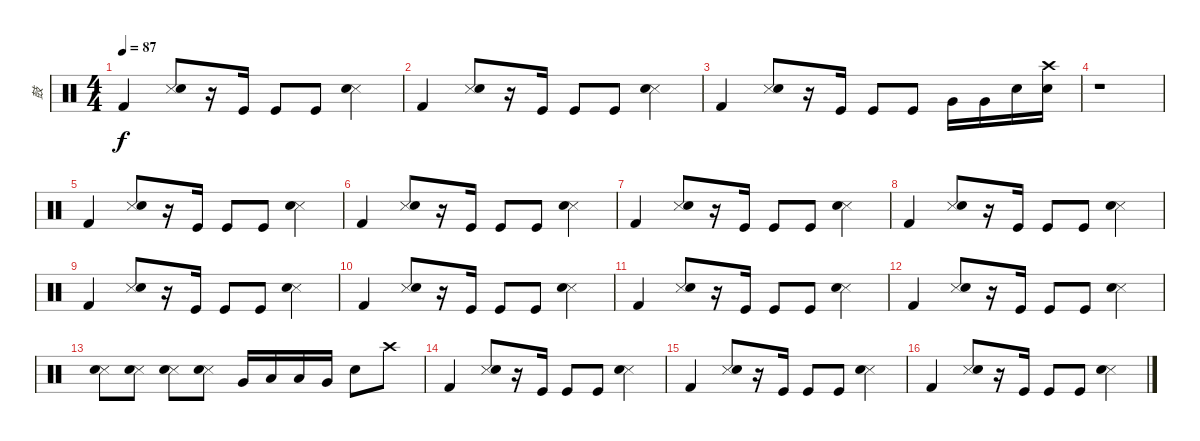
\track ("鼓" "鼓") {instrument percussion}
\staff {score}
\articulation defaults
\ts (4 4)
\tempo 87
\clef neutral
\ks c "Kick (hit) 2".4{dy f}
("Snare (side stick) 3" "Electric Snare (hit)").8 r.16 "Kick (hit)".16 "Kick (hit)".8 "Kick (hit)".8 ("Snare (side stick) 3" "Electric Snare (hit)").4 |
"Kick (hit) 2".4 ("Snare (side stick) 3" "Electric Snare (hit)").8 r.16 "Kick (hit)".16 "Kick (hit)".8 "Kick (hit)".8 ("Snare (side stick) 3" "Electric Snare (hit)").4 |
"Kick (hit) 2".4 ("Snare (side stick) 3" "Electric Snare (hit)").8 r.16 "Kick (hit)".16 "Kick (hit)".8 "Kick (hit)".8 "Very Low Tom (hit)".16 "Very Low Tom (hit)".16 "Electric Snare (hit)".16 ("Crash high (hit)" "Electric Snare (hit)").16 |
r.1 |
"Kick (hit) 2".4 ("Snare (side stick) 3" "Electric Snare (hit)").8 r.16 "Kick (hit)".16 "Kick (hit)".8 "Kick (hit)".8 ("Snare (side stick) 3" "Electric Snare (hit)").4 |
"Kick (hit) 2".4 ("Snare (side stick) 3" "Electric Snare (hit)").8 r.16 "Kick (hit)".16 "Kick (hit)".8 "Kick (hit)".8 ("Snare (side stick) 3" "Electric Snare (hit)").4 |
"Kick (hit) 2".4 ("Snare (side stick) 3" "Electric Snare (hit)").8 r.16 "Kick (hit)".16 "Kick (hit)".8 "Kick (hit)".8 ("Snare (side stick) 3" "Electric Snare (hit)").4 |
"Kick (hit) 2".4 ("Snare (side stick) 3" "Electric Snare (hit)").8 r.16 "Kick (hit)".16 "Kick (hit)".8 "Kick (hit)".8 ("Snare (side stick) 3" "Electric Snare (hit)").4 |
"Kick (hit) 2".4 ("Snare (side stick) 3" "Electric Snare (hit)").8 r.16 "Kick (hit)".16 "Kick (hit)".8 "Kick (hit)".8 ("Snare (side stick) 3" "Electric Snare (hit)").4 |
"Kick (hit) 2".4 ("Snare (side stick) 3" "Electric Snare (hit)").8 r.16 "Kick (hit)".16 "Kick (hit)".8 "Kick (hit)".8 ("Snare (side stick) 3" "Electric Snare (hit)").4 |
"Kick (hit) 2".4 ("Snare (side stick) 3" "Electric Snare (hit)").8 r.16 "Kick (hit)".16 "Kick (hit)".8 "Kick (hit)".8 ("Snare (side stick) 3" "Electric Snare (hit)").4 |
"Kick (hit) 2".4 ("Snare (side stick) 3" "Electric Snare (hit)").8 r.16 "Kick (hit)".16 "Kick (hit)".8 "Kick (hit)".8 ("Snare (side stick) 3" "Electric Snare (hit)").4 |
("Snare (side stick) 3" "Electric Snare (hit)").8 ("Snare (side stick) 3" "Electric Snare (hit)").8 ("Snare (side stick) 3" "Electric Snare (hit)").8 ("Snare (side stick) 3" "Electric Snare (hit)").8 "Very Low Tom (hit)".16 "Low Floor Tom (hit)".16 "Low Tom (hit)".16 "Very Low Tom (hit)".16 "Electric Snare (hit)".8 "Crash high (hit)".8 |
"Kick (hit) 2".4 ("Snare (side stick) 3" "Electric Snare (hit)").8 r.16 "Kick (hit)".16 "Kick (hit)".8 "Kick (hit)".8 ("Snare (side stick) 3" "Electric Snare (hit)").4 |
"Kick (hit) 2".4 ("Snare (side stick) 3" "Electric Snare (hit)").8 r.16 "Kick (hit)".16 "Kick (hit)".8 "Kick (hit)".8 ("Snare (side stick) 3" "Electric Snare (hit)").4 |
"Kick (hit) 2".4 ("Snare (side stick) 3" "Electric Snare (hit)").8 r.16 "Kick (hit)".16 "Kick (hit)".8 "Kick (hit)".8 ("Snare (side stick) 3" "Electric Snare (hit)").4
